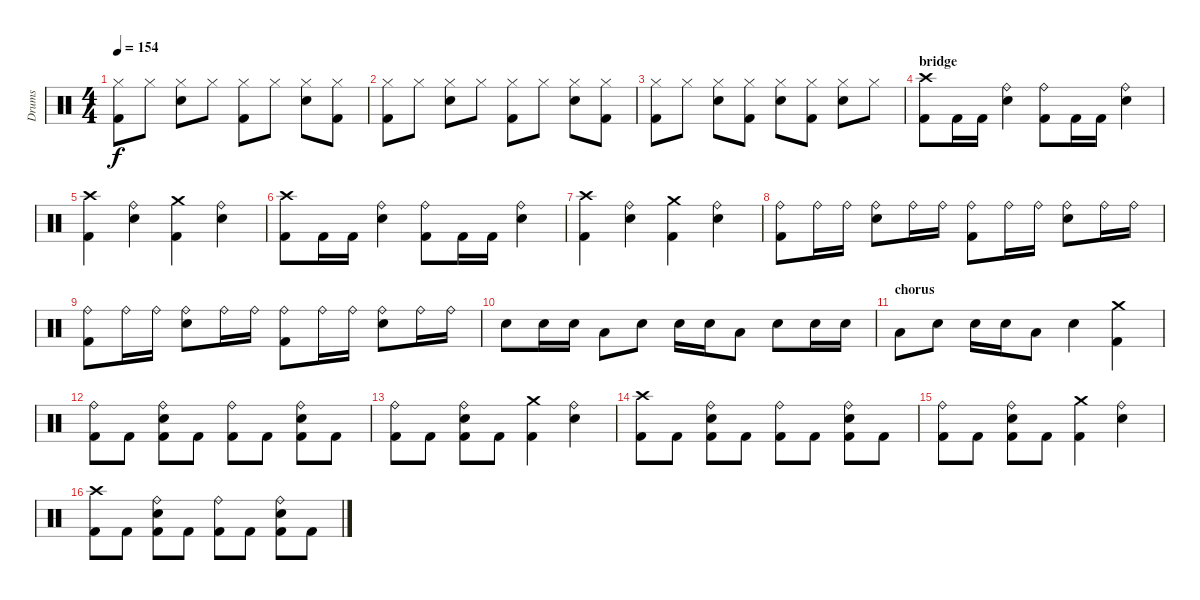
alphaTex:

\track ("Drums" "Drums") {instrument percussion}
\staff {score}
\articulation defaults
\ts (4 4)
\tempo 154
\clef neutral
\ks c
("Hi-Hat (closed)" "Kick (hit) 2").8{dy f} "Hi-Hat (closed)".8 ("Hi-Hat (closed)" "Electric Snare (hit)").8 "Hi-Hat (closed)".8 ("Hi-Hat (closed)" "Kick (hit) 2").8 "Hi-Hat (closed)".8 ("Hi-Hat (closed)" "Electric Snare (hit)").8 ("Hi-Hat (closed)" "Kick (hit) 2").8 |
("Hi-Hat (closed)" "Kick (hit) 2").8 "Hi-Hat (closed)".8 ("Hi-Hat (closed)" "Electric Snare (hit)").8 "Hi-Hat (closed)".8 ("Hi-Hat (closed)" "Kick (hit) 2").8 "Hi-Hat (closed)".8 ("Hi-Hat (closed)" "Electric Snare (hit)").8 ("Hi-Hat (closed)" "Kick (hit) 2").8 |
("Hi-Hat (closed)" "Kick (hit) 2").8 "Hi-Hat (closed)".8 ("Hi-Hat (closed)" "Electric Snare (hit)").8 ("Hi-Hat (closed)" "Kick (hit) 2").8 ("Hi-Hat (closed)" "Electric Snare (hit)").8 ("Hi-Hat (closed)" "Kick (hit) 2").8 ("Hi-Hat (closed)" "Electric Snare (hit)").8 "Hi-Hat (closed)".8 |
\section ("" "bridge")
("Crash high (hit)" "Kick (hit) 2").8 "Kick (hit) 2".16 "Kick (hit) 2".16 ("Ride (bell)" "Electric Snare (hit)").4 ("Ride (bell)" "Kick (hit) 2").8 "Kick (hit) 2".16 "Kick (hit) 2".16 ("Ride (bell)" "Electric Snare (hit)").4 |
("Crash high (hit)" "Kick (hit) 2").4 ("Ride (bell)" "Electric Snare (hit)").4 ("Crash medium (hit)" "Kick (hit) 2").4 ("Ride (bell)" "Electric Snare (hit)").4 |
("Crash high (hit)" "Kick (hit) 2").8 "Kick (hit) 2".16 "Kick (hit) 2".16 ("Ride (bell)" "Electric Snare (hit)").4 ("Ride (bell)" "Kick (hit) 2").8 "Kick (hit) 2".16 "Kick (hit) 2".16 ("Ride (bell)" "Electric Snare (hit)").4 |
("Crash high (hit)" "Kick (hit) 2").4 ("Ride (bell)" "Electric Snare (hit)").4 ("Crash medium (hit)" "Kick (hit) 2").4 ("Ride (bell)" "Electric Snare (hit)").4 |
("Ride (bell)" "Kick (hit) 2").8 "Ride (bell)".16 "Ride (bell)".16 ("Ride (bell)" "Electric Snare (hit)").8 "Ride (bell)".16 "Ride (bell)".16 ("Ride (bell)" "Kick (hit) 2").8 "Ride (bell)".16 "Ride (bell)".16 ("Ride (bell)" "Electric Snare (hit)").8 "Ride (bell)".16 "Ride (bell)".16 |
("Ride (bell)" "Kick (hit) 2").8 "Ride (bell)".16 "Ride (bell)".16 ("Ride (bell)" "Electric Snare (hit)").8 "Ride (bell)".16 "Ride (bell)".16 ("Ride (bell)" "Kick (hit) 2").8 "Ride (bell)".16 "Ride (bell)".16 ("Ride (bell)" "Electric Snare (hit)").8 "Ride (bell)".16 "Ride (bell)".16 |
"Electric Snare (hit)".8 "Electric Snare (hit)".16 "Electric Snare (hit)".16 "Low Tom (hit)".8 "Electric Snare (hit)".8 "Electric Snare (hit)".16 "Electric Snare (hit)".16 "Low Tom (hit)".8 "Electric Snare (hit)".8 "Electric Snare (hit)".16 "Electric Snare (hit)".16 |
\section ("" "chorus")
"Low Tom (hit)".8 "Electric Snare (hit)".8 "Electric Snare (hit)".16 "Electric Snare (hit)".16 "Low Tom (hit)".8 "Electric Snare (hit)".4 ("Crash medium (hit)" "Kick (hit) 2").4 |
("Ride (bell)" "Kick (hit) 2").8 "Kick (hit) 2".8 ("Ride (bell)" "Electric Snare (hit)" "Kick (hit) 2").8 "Kick (hit) 2".8 ("Ride (bell)" "Kick (hit) 2").8 "Kick (hit) 2".8 ("Ride (bell)" "Electric Snare (hit)" "Kick (hit) 2").8 "Kick (hit) 2".8 |
("Ride (bell)" "Kick (hit) 2").8 "Kick (hit) 2".8 ("Ride (bell)" "Electric Snare (hit)" "Kick (hit) 2").8 "Kick (hit) 2".8 ("Crash medium (hit)" "Kick (hit) 2").4 ("Ride (bell)" "Electric Snare (hit)").4 |
("Crash high (hit)" "Kick (hit) 2").8 "Kick (hit) 2".8 ("Ride (bell)" "Electric Snare (hit)" "Kick (hit) 2").8 "Kick (hit) 2".8 ("Ride (bell)" "Kick (hit) 2").8 "Kick (hit) 2".8 ("Ride (bell)" "Electric Snare (hit)" "Kick (hit) 2").8 "Kick (hit) 2".8 |
("Ride (bell)" "Kick (hit) 2").8 "Kick (hit) 2".8 ("Ride (bell)" "Electric Snare (hit)" "Kick (hit) 2").8 "Kick (hit) 2".8 ("Crash medium (hit)" "Kick (hit) 2").4 ("Ride (bell)" "Electric Snare (hit)").4 |
("Crash high (hit)" "Kick (hit) 2").8 "Kick (hit) 2".8 ("Ride (bell)" "Electric Snare (hit)" "Kick (hit) 2").8 "Kick (hit) 2".8 ("Ride (bell)" "Kick (hit) 2").8 "Kick (hit) 2".8 ("Ride (bell)" "Electric Snare (hit)" "Kick (hit) 2").8 "Kick (hit) 2".8
